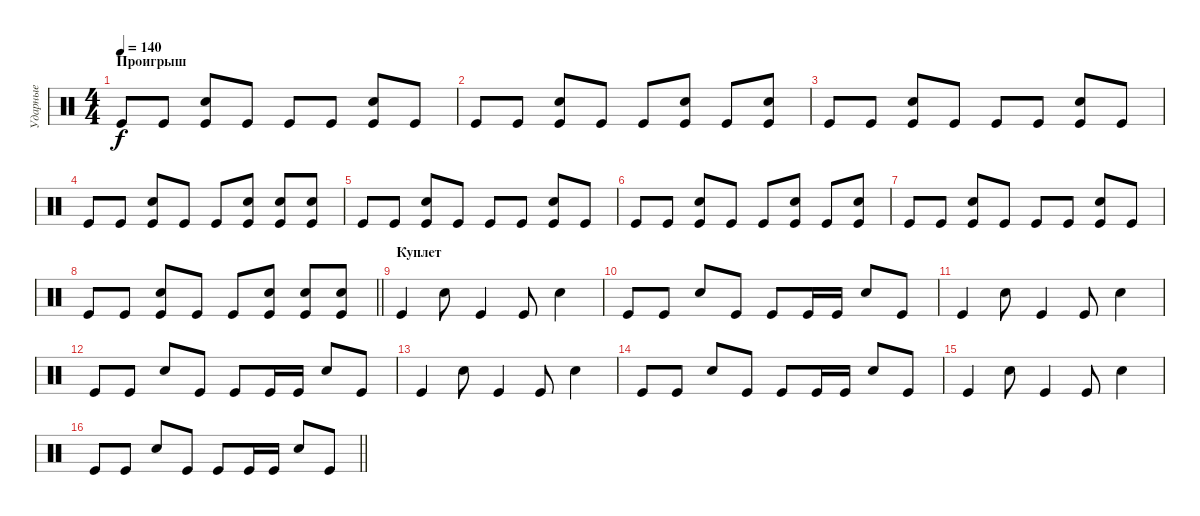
\track ("Ударные" "Ударные") {instrument percussion}
\staff {score}
\articulation defaults
\ts (4 4)
\section ("" "Проигрыш")
\tempo 140
\clef neutral
\ks c "Kick (hit)".8{dy f} "Kick (hit)".8
("Kick (hit)" "Snare (hit) 2").8 "Kick (hit)".8 "Kick (hit)".8 "Kick (hit)".8 ("Kick (hit)" "Snare (hit) 2").8 "Kick (hit)".8 |
"Kick (hit)".8 "Kick (hit)".8 ("Kick (hit)" "Snare (hit) 2").8 "Kick (hit)".8 "Kick (hit)".8 ("Kick (hit)" "Snare (hit) 2").8 "Kick (hit)".8 ("Kick (hit)" "Snare (hit) 2").8 |
"Kick (hit)".8 "Kick (hit)".8 ("Kick (hit)" "Snare (hit) 2").8 "Kick (hit)".8 "Kick (hit)".8 "Kick (hit)".8 ("Kick (hit)" "Snare (hit) 2").8 "Kick (hit)".8 |
"Kick (hit)".8 "Kick (hit)".8 ("Kick (hit)" "Snare (hit) 2").8 "Kick (hit)".8 "Kick (hit)".8 ("Kick (hit)" "Snare (hit) 2").8 ("Kick (hit)" "Snare (hit) 2").8 ("Kick (hit)" "Snare (hit) 2").8 |
"Kick (hit)".8 "Kick (hit)".8 ("Kick (hit)" "Snare (hit) 2").8 "Kick (hit)".8 "Kick (hit)".8 "Kick (hit)".8 ("Kick (hit)" "Snare (hit) 2").8 "Kick (hit)".8 |
"Kick (hit)".8 "Kick (hit)".8 ("Kick (hit)" "Snare (hit) 2").8 "Kick (hit)".8 "Kick (hit)".8 ("Kick (hit)" "Snare (hit) 2").8 "Kick (hit)".8 ("Kick (hit)" "Snare (hit) 2").8 |
"Kick (hit)".8 "Kick (hit)".8 ("Kick (hit)" "Snare (hit) 2").8 "Kick (hit)".8 "Kick (hit)".8 "Kick (hit)".8 ("Kick (hit)" "Snare (hit) 2").8 "Kick (hit)".8 |
\barLineRight lightlight "Kick (hit)".8 "Kick (hit)".8
("Kick (hit)" "Snare (hit) 2").8 "Kick (hit)".8 "Kick (hit)".8 ("Kick (hit)" "Snare (hit) 2").8 ("Kick (hit)" "Snare (hit) 2").8 ("Kick (hit)" "Snare (hit) 2").8 |
\section ("" "Куплет")
"Kick (hit)".4 "Snare (hit) 2".8 "Kick (hit)".4 "Kick (hit)".8 "Snare (hit) 2".4 |
"Kick (hit)".8 "Kick (hit)".8 "Snare (hit) 2".8 "Kick (hit)".8 "Kick (hit)".8 "Kick (hit)".16 "Kick (hit)".16 "Snare (hit) 2".8 "Kick (hit)".8 |
"Kick (hit)".4 "Snare (hit) 2".8 "Kick (hit)".4 "Kick (hit)".8 "Snare (hit) 2".4 |
"Kick (hit)".8 "Kick (hit)".8 "Snare (hit) 2".8 "Kick (hit)".8 "Kick (hit)".8 "Kick (hit)".16 "Kick (hit)".16 "Snare (hit) 2".8 "Kick (hit)".8 |
"Kick (hit)".4 "Snare (hit) 2".8 "Kick (hit)".4 "Kick (hit)".8 "Snare (hit) 2".4 |
"Kick (hit)".8 "Kick (hit)".8 "Snare (hit) 2".8 "Kick (hit)".8 "Kick (hit)".8 "Kick (hit)".16 "Kick (hit)".16 "Snare (hit) 2".8 "Kick (hit)".8 |
"Kick (hit)".4 "Snare (hit) 2".8 "Kick (hit)".4 "Kick (hit)".8 "Snare (hit) 2".4 |
\barLineRight lightlight "Kick (hit)".8 "Kick (hit)".8 "Snare (hit) 2".8 "Kick (hit)".8 "Kick (hit)".8 "Kick (hit)".16 "Kick (hit)".16 "Snare (hit) 2".8 "Kick (hit)".8
